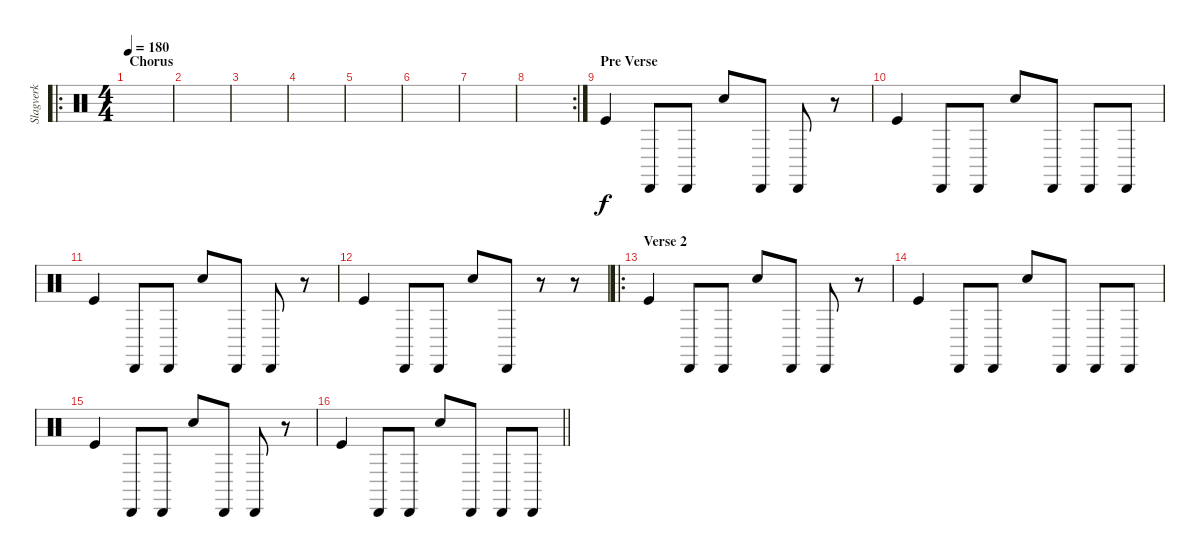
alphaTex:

\track ("Slagverk" "Slagverk") {instrument percussion}
\staff {score}
\articulation defaults
\ro
\ts (4 4)
\section ("" "Chorus")
\tempo 180
\clef neutral
\ks c
|
|
|
|
|
|
|
\rc 2
|
\section ("" "Pre Verse")
"Kick (hit)".4 "Cabasa (hit)".8 "Cabasa (hit)".8 "Snare (hit) 2".8 "Cabasa (hit)".8 "Cabasa (hit)".8 r.8 |
"Kick (hit)".4 "Cabasa (hit)".8 "Cabasa (hit)".8 "Snare (hit) 2".8 "Cabasa (hit)".8 "Cabasa (hit)".8 "Cabasa (hit)".8 |
"Kick (hit)".4 "Cabasa (hit)".8 "Cabasa (hit)".8 "Snare (hit) 2".8 "Cabasa (hit)".8 "Cabasa (hit)".8 r.8 |
"Kick (hit)".4 "Cabasa (hit)".8 "Cabasa (hit)".8 "Snare (hit) 2".8 "Cabasa (hit)".8 r.8 r.8 |
\ro
\section ("" "Verse 2")
"Kick (hit)".4 "Cabasa (hit)".8 "Cabasa (hit)".8 "Snare (hit) 2".8 "Cabasa (hit)".8 "Cabasa (hit)".8 r.8 |
"Kick (hit)".4 "Cabasa (hit)".8 "Cabasa (hit)".8 "Snare (hit) 2".8 "Cabasa (hit)".8 "Cabasa (hit)".8 "Cabasa (hit)".8 |
"Kick (hit)".4 "Cabasa (hit)".8 "Cabasa (hit)".8 "Snare (hit) 2".8 "Cabasa (hit)".8 "Cabasa (hit)".8 r.8 |
\barLineRight lightlight "Kick (hit)".4 "Cabasa (hit)".8 "Cabasa (hit)".8 "Snare (hit) 2".8 "Cabasa (hit)".8 "Cabasa (hit)".8 "Cabasa (hit)".8
